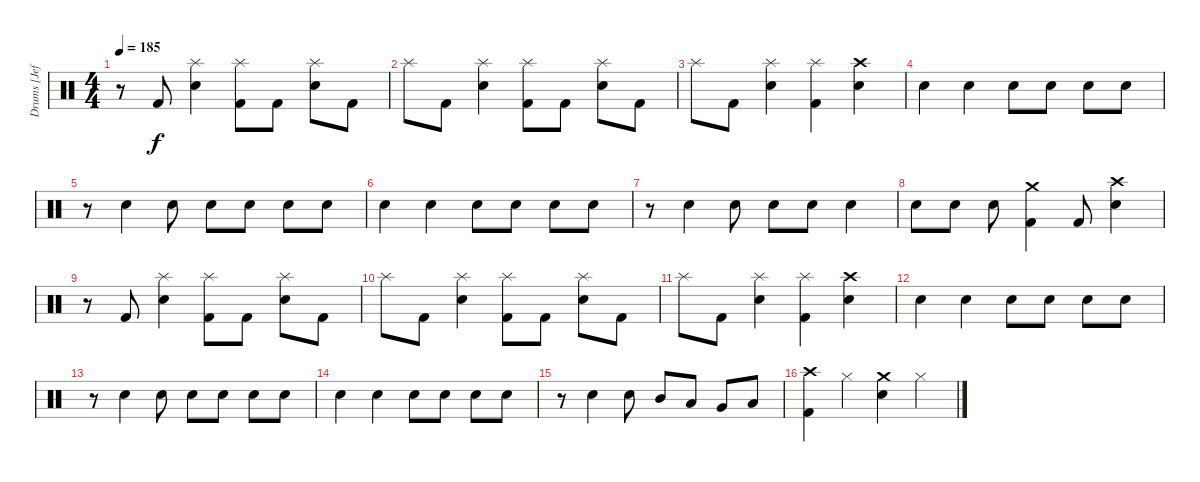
\track ("Drums [Jeff]" "Drums [Jef") {instrument percussion}
\staff {score}
\articulation defaults
\ts (4 4)
\tempo 185
\clef neutral
\ks c
r.8{dy f} "Kick (hit) 2".8 ("Splash (hit)" "Electric Snare (hit)").4 ("Splash (hit)" "Kick (hit) 2").8 "Kick (hit) 2".8 ("Splash (hit)" "Electric Snare (hit)").8 "Kick (hit) 2".8 |
"Splash (hit)".8 "Kick (hit) 2".8 ("Splash (hit)" "Electric Snare (hit)").4 ("Splash (hit)" "Kick (hit) 2").8 "Kick (hit) 2".8 ("Splash (hit)" "Electric Snare (hit)").8 "Kick (hit) 2".8 |
"Splash (hit)".8 "Kick (hit) 2".8 ("Splash (hit)" "Electric Snare (hit)").4 ("Splash (hit)" "Kick (hit) 2").4 ("Crash high (hit)" "Electric Snare (hit)").4 |
"Electric Snare (hit)".4 "Electric Snare (hit)".4 "Electric Snare (hit)".8 "Electric Snare (hit)".8 "Electric Snare (hit)".8 "Electric Snare (hit)".8 |
r.8 "Electric Snare (hit)".4 "Electric Snare (hit)".8 "Electric Snare (hit)".8 "Electric Snare (hit)".8 "Electric Snare (hit)".8 "Electric Snare (hit)".8 |
"Electric Snare (hit)".4 "Electric Snare (hit)".4 "Electric Snare (hit)".8 "Electric Snare (hit)".8 "Electric Snare (hit)".8 "Electric Snare (hit)".8 |
r.8 "Electric Snare (hit)".4 "Electric Snare (hit)".8 "Electric Snare (hit)".8 "Electric Snare (hit)".8 "Electric Snare (hit)".4 |
"Electric Snare (hit)".8 "Electric Snare (hit)".8 "Electric Snare (hit)".8 ("Crash medium (hit)" "Kick (hit) 2").4 "Kick (hit) 2".8 ("Crash high (hit)" "Electric Snare (hit)").4 |
r.8 "Kick (hit) 2".8 ("Splash (hit)" "Electric Snare (hit)").4 ("Splash (hit)" "Kick (hit) 2").8 "Kick (hit) 2".8 ("Splash (hit)" "Electric Snare (hit)").8 "Kick (hit) 2".8 |
"Splash (hit)".8 "Kick (hit) 2".8 ("Splash (hit)" "Electric Snare (hit)").4 ("Splash (hit)" "Kick (hit) 2").8 "Kick (hit) 2".8 ("Splash (hit)" "Electric Snare (hit)").8 "Kick (hit) 2".8 |
"Splash (hit)".8 "Kick (hit) 2".8 ("Splash (hit)" "Electric Snare (hit)").4 ("Splash (hit)" "Kick (hit) 2").4 ("Crash high (hit)" "Electric Snare (hit)").4 |
"Electric Snare (hit)".4 "Electric Snare (hit)".4 "Electric Snare (hit)".8 "Electric Snare (hit)".8 "Electric Snare (hit)".8 "Electric Snare (hit)".8 |
r.8 "Electric Snare (hit)".4 "Electric Snare (hit)".8 "Electric Snare (hit)".8 "Electric Snare (hit)".8 "Electric Snare (hit)".8 "Electric Snare (hit)".8 |
"Electric Snare (hit)".4 "Electric Snare (hit)".4 "Electric Snare (hit)".8 "Electric Snare (hit)".8 "Electric Snare (hit)".8 "Electric Snare (hit)".8 |
r.8 "Electric Snare (hit)".4 "Electric Snare (hit)".8 "Mid Tom (hit)".8 "Low Tom (hit)".8 "Very Low Tom (hit)".8 "Low Floor Tom (hit)".8 |
("Crash high (hit)" "Kick (hit) 2").4 "Hi-Hat (closed)".4 ("Crash medium (hit)" "Electric Snare (hit)").4 "Hi-Hat (closed)".4
